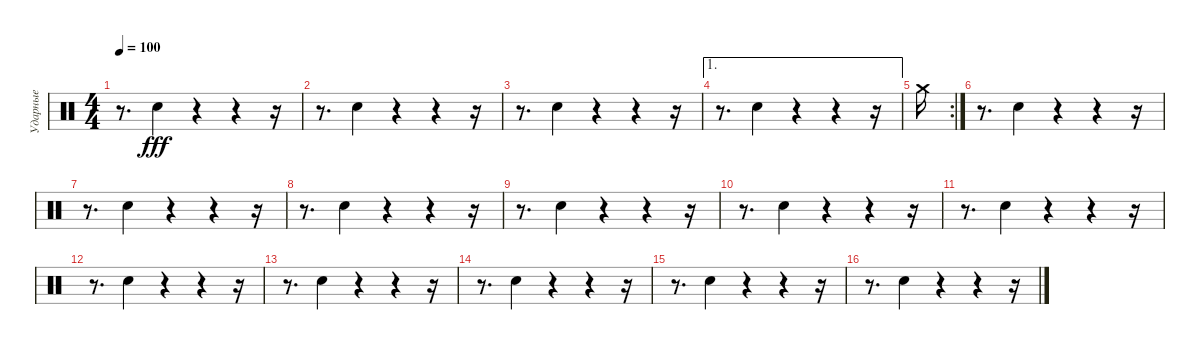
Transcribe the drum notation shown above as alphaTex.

\track ("Ударные" "Ударные") {instrument percussion}
\staff {score}
\articulation defaults
\ts (4 4)
\tempo 100
\clef neutral
\ks c
r.8{d dy fff} "Hand Clap (hit)".4 r.4 r.4 r.16 |
r.8{d} "Hand Clap (hit)".4 r.4 r.4 r.16 |
r.8{d} "Hand Clap (hit)".4 r.4 r.4 r.16 |
\ae 1
r.8{d} "Hand Clap (hit)".4 r.4 r.4 r.16 |
\rc 2 "Crash medium (hit)".16
|
r.8{d} "Hand Clap (hit)".4 r.4 r.4 r.16 |
r.8{d} "Hand Clap (hit)".4 r.4 r.4 r.16 |
r.8{d} "Hand Clap (hit)".4 r.4 r.4 r.16 |
r.8{d} "Hand Clap (hit)".4 r.4 r.4 r.16 |
r.8{d} "Hand Clap (hit)".4 r.4 r.4 r.16 |
r.8{d} "Hand Clap (hit)".4 r.4 r.4 r.16 |
r.8{d} "Hand Clap (hit)".4 r.4 r.4 r.16 |
r.8{d} "Hand Clap (hit)".4 r.4 r.4 r.16 |
r.8{d} "Hand Clap (hit)".4 r.4 r.4 r.16 |
r.8{d} "Hand Clap (hit)".4 r.4 r.4 r.16 |
r.8{d} "Hand Clap (hit)".4 r.4 r.4 r.16
